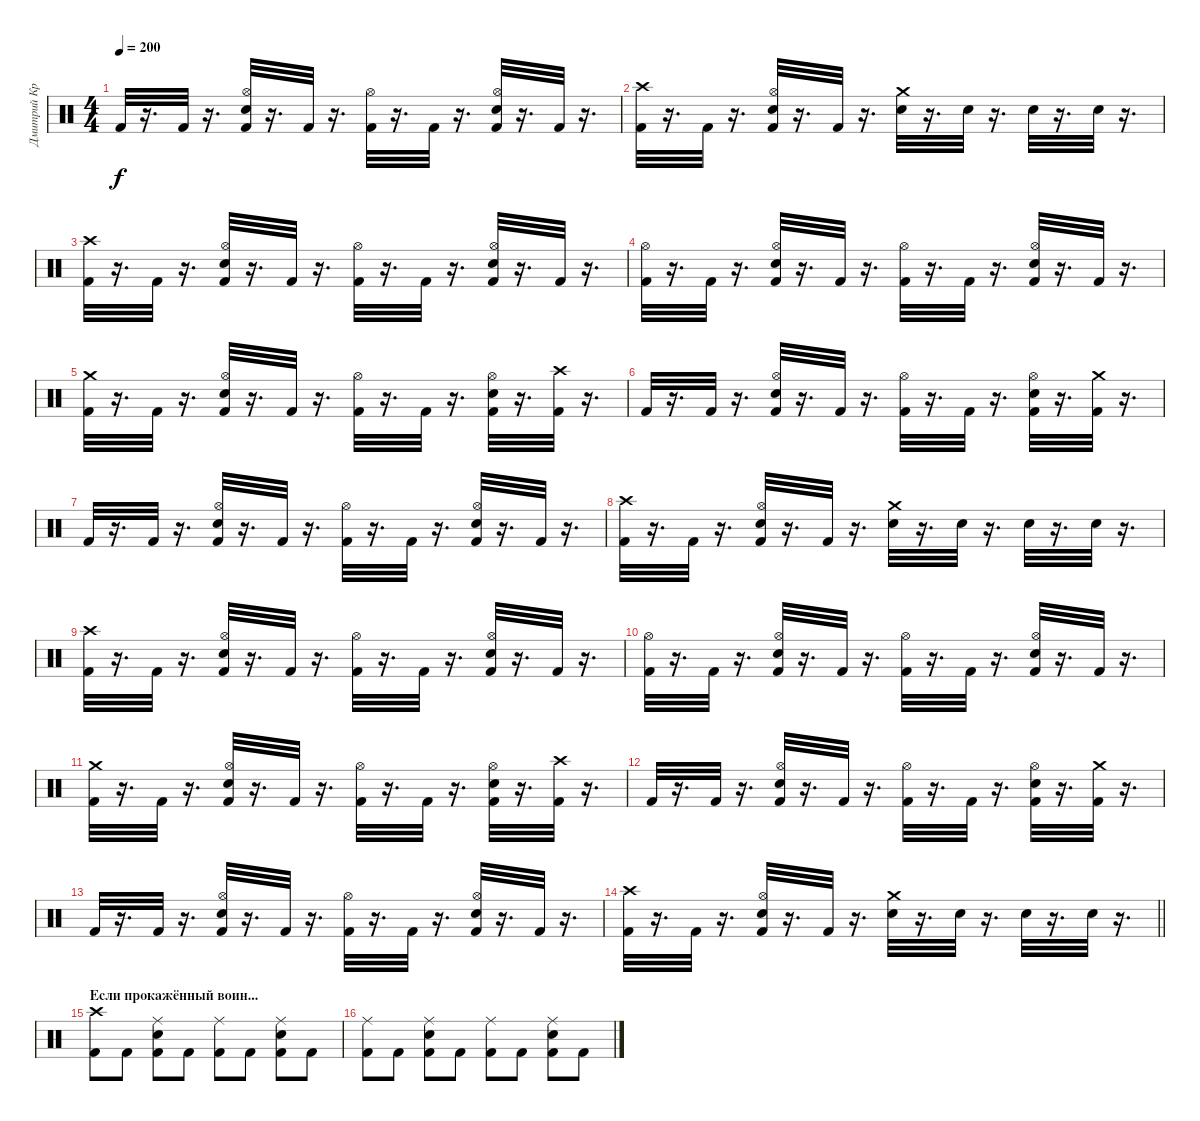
\track ("Дмитрий Кривенков" "Дмитрий Кр") {instrument percussion}
\staff {score}
\articulation defaults
\ts (4 4)
\tempo 200
\clef neutral
\ks c "Kick (hit) 2".32{dy f}
r.16{d} "Kick (hit) 2".32 r.16{d} ("Hi-Hat (open)" "Kick (hit) 2" "Electric Snare (hit)").32 r.16{d} "Kick (hit) 2".32 r.16{d} ("Hi-Hat (open)" "Kick (hit) 2").32 r.16{d} "Kick (hit) 2".32 r.16{d} ("Hi-Hat (open)" "Electric Snare (hit)" "Kick (hit) 2").32 r.16{d} "Kick (hit) 2".32 r.16{d} |
("Crash high (hit)" "Kick (hit) 2").32 r.16{d} "Kick (hit) 2".32 r.16{d} ("Electric Snare (hit)" "Kick (hit) 2" "Hi-Hat (open)").32 r.16{d} "Kick (hit) 2".32 r.16{d} ("Electric Snare (hit)" "Crash medium (hit)").32 r.16{d} "Electric Snare (hit)".32 r.16{d} "Electric Snare (hit)".32 r.16{d} "Electric Snare (hit)".32 r.16{d} |
("Kick (hit) 2" "Crash high (hit)").32 r.16{d} "Kick (hit) 2".32 r.16{d} ("Hi-Hat (open)" "Kick (hit) 2" "Electric Snare (hit)").32 r.16{d} "Kick (hit) 2".32 r.16{d} ("Hi-Hat (open)" "Kick (hit) 2").32 r.16{d} "Kick (hit) 2".32 r.16{d} ("Hi-Hat (open)" "Kick (hit) 2" "Electric Snare (hit)").32 r.16{d} "Kick (hit) 2".32 r.16{d} |
("Hi-Hat (open)" "Kick (hit) 2").32 r.16{d} "Kick (hit) 2".32 r.16{d} ("Hi-Hat (open)" "Electric Snare (hit)" "Kick (hit) 2").32 r.16{d} "Kick (hit) 2".32 r.16{d} ("Hi-Hat (open)" "Kick (hit) 2").32 r.16{d} "Kick (hit) 2".32 r.16{d} ("Hi-Hat (open)" "Electric Snare (hit)" "Kick (hit) 2").32 r.16{d} "Kick (hit) 2".32 r.16{d} |
("Kick (hit) 2" "Crash medium (hit)").32 r.16{d} "Kick (hit) 2".32 r.16{d} ("Kick (hit) 2" "Electric Snare (hit)" "Hi-Hat (open)").32 r.16{d} "Kick (hit) 2".32 r.16{d} ("Kick (hit) 2" "Hi-Hat (open)").32 r.16{d} "Kick (hit) 2".32 r.16{d} ("Kick (hit) 2" "Electric Snare (hit)" "Hi-Hat (open)").32 r.16{d} ("Kick (hit) 2" "Crash high (hit)").32 r.16{d} |
"Kick (hit) 2".32 r.16{d} "Kick (hit) 2".32 r.16{d} ("Hi-Hat (open)" "Kick (hit) 2" "Electric Snare (hit)").32 r.16{d} "Kick (hit) 2".32 r.16{d} ("Hi-Hat (open)" "Kick (hit) 2").32 r.16{d} "Kick (hit) 2".32 r.16{d} ("Hi-Hat (open)" "Electric Snare (hit)" "Kick (hit) 2").32 r.16{d} ("Crash medium (hit)" "Kick (hit) 2").32 r.16{d} |
"Kick (hit) 2".32 r.16{d} "Kick (hit) 2".32 r.16{d} ("Hi-Hat (open)" "Kick (hit) 2" "Electric Snare (hit)").32 r.16{d} "Kick (hit) 2".32 r.16{d} ("Hi-Hat (open)" "Kick (hit) 2").32 r.16{d} "Kick (hit) 2".32 r.16{d} ("Hi-Hat (open)" "Electric Snare (hit)" "Kick (hit) 2").32 r.16{d} "Kick (hit) 2".32 r.16{d} |
("Crash high (hit)" "Kick (hit) 2").32 r.16{d} "Kick (hit) 2".32 r.16{d} ("Electric Snare (hit)" "Kick (hit) 2" "Hi-Hat (open)").32 r.16{d} "Kick (hit) 2".32 r.16{d} ("Electric Snare (hit)" "Crash medium (hit)").32 r.16{d} "Electric Snare (hit)".32 r.16{d} "Electric Snare (hit)".32 r.16{d} "Electric Snare (hit)".32 r.16{d} |
("Kick (hit) 2" "Crash high (hit)").32 r.16{d} "Kick (hit) 2".32 r.16{d} ("Hi-Hat (open)" "Kick (hit) 2" "Electric Snare (hit)").32 r.16{d} "Kick (hit) 2".32 r.16{d} ("Hi-Hat (open)" "Kick (hit) 2").32 r.16{d} "Kick (hit) 2".32 r.16{d} ("Hi-Hat (open)" "Kick (hit) 2" "Electric Snare (hit)").32 r.16{d} "Kick (hit) 2".32 r.16{d} |
("Hi-Hat (open)" "Kick (hit) 2").32 r.16{d} "Kick (hit) 2".32 r.16{d} ("Hi-Hat (open)" "Electric Snare (hit)" "Kick (hit) 2").32 r.16{d} "Kick (hit) 2".32 r.16{d} ("Hi-Hat (open)" "Kick (hit) 2").32 r.16{d} "Kick (hit) 2".32 r.16{d} ("Hi-Hat (open)" "Electric Snare (hit)" "Kick (hit) 2").32 r.16{d} "Kick (hit) 2".32 r.16{d} |
("Kick (hit) 2" "Crash medium (hit)").32 r.16{d} "Kick (hit) 2".32 r.16{d} ("Kick (hit) 2" "Electric Snare (hit)" "Hi-Hat (open)").32 r.16{d} "Kick (hit) 2".32 r.16{d} ("Kick (hit) 2" "Hi-Hat (open)").32 r.16{d} "Kick (hit) 2".32 r.16{d} ("Kick (hit) 2" "Electric Snare (hit)" "Hi-Hat (open)").32 r.16{d} ("Kick (hit) 2" "Crash high (hit)").32 r.16{d} |
"Kick (hit) 2".32 r.16{d} "Kick (hit) 2".32 r.16{d} ("Hi-Hat (open)" "Kick (hit) 2" "Electric Snare (hit)").32 r.16{d} "Kick (hit) 2".32 r.16{d} ("Hi-Hat (open)" "Kick (hit) 2").32 r.16{d} "Kick (hit) 2".32 r.16{d} ("Hi-Hat (open)" "Electric Snare (hit)" "Kick (hit) 2").32 r.16{d} ("Crash medium (hit)" "Kick (hit) 2").32 r.16{d} |
"Kick (hit) 2".32 r.16{d} "Kick (hit) 2".32 r.16{d} ("Hi-Hat (open)" "Kick (hit) 2" "Electric Snare (hit)").32 r.16{d} "Kick (hit) 2".32 r.16{d} ("Hi-Hat (open)" "Kick (hit) 2").32 r.16{d} "Kick (hit) 2".32 r.16{d} ("Hi-Hat (open)" "Electric Snare (hit)" "Kick (hit) 2").32 r.16{d} "Kick (hit) 2".32 r.16{d} |
\barLineRight lightlight
("Crash high (hit)" "Kick (hit) 2").32 r.16{d} "Kick (hit) 2".32 r.16{d} ("Electric Snare (hit)" "Kick (hit) 2" "Hi-Hat (open)").32 r.16{d} "Kick (hit) 2".32 r.16{d} ("Electric Snare (hit)" "Crash medium (hit)").32 r.16{d} "Electric Snare (hit)".32 r.16{d} "Electric Snare (hit)".32 r.16{d} "Electric Snare (hit)".32 r.16{d} |
\section ("" "Если прокажённый воин...")
("Crash high (hit)" "Kick (hit) 2").8 "Kick (hit) 2".8 ("Ride (middle)" "Electric Snare (hit)" "Kick (hit) 2").8 "Kick (hit) 2".8 ("Ride (middle)" "Kick (hit) 2").8 "Kick (hit) 2".8 ("Ride (middle)" "Electric Snare (hit)" "Kick (hit) 2").8 "Kick (hit) 2".8 |
("Ride (middle)" "Kick (hit) 2").8 "Kick (hit) 2".8 ("Ride (middle)" "Electric Snare (hit)" "Kick (hit) 2").8 "Kick (hit) 2".8 ("Ride (middle)" "Kick (hit) 2").8 "Kick (hit) 2".8 ("Ride (middle)" "Electric Snare (hit)" "Kick (hit) 2").8 "Kick (hit) 2".8
